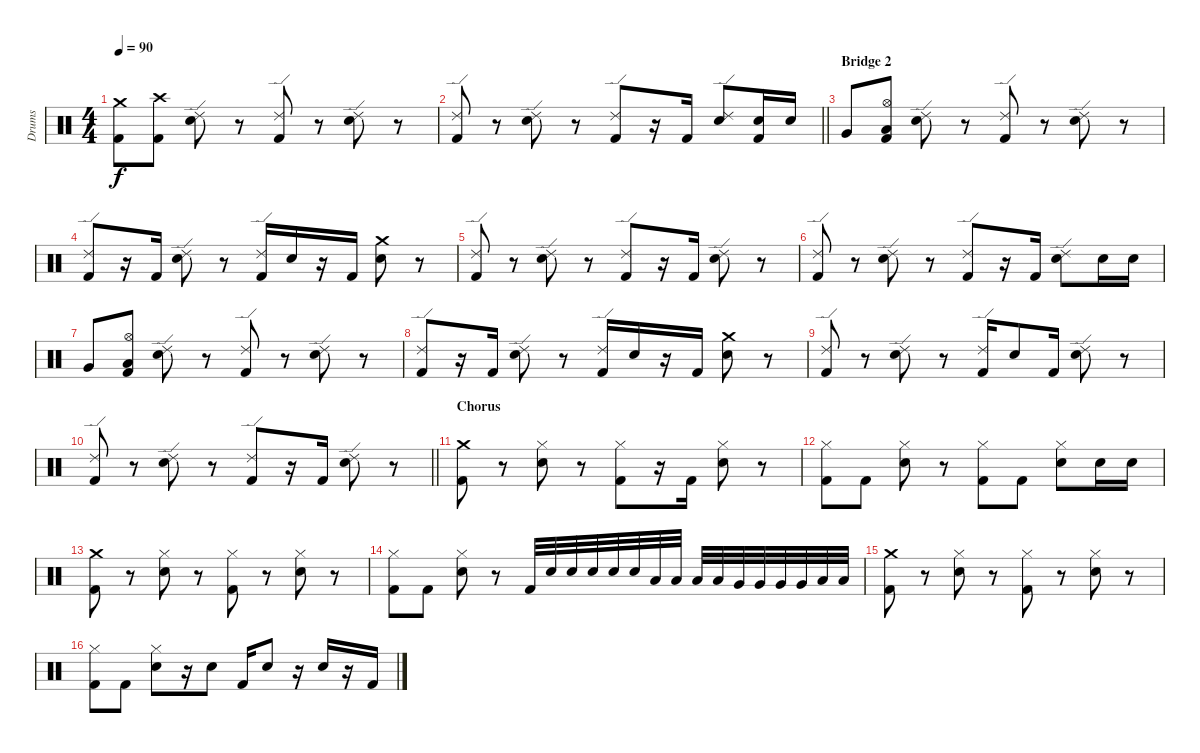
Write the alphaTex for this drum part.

\track ("Drums" "Drums") {instrument percussion}
\staff {score}
\articulation defaults
\ts (4 4)
\tempo 90
\clef neutral
\ks c
("Crash medium (hit)" "Kick (hit) 2").8{dy f} ("Crash high (hit)" "Kick (hit) 2").8 ("Ride (edge) 2" "Snare (hit) 2").8 r.8 ("Ride (edge) 2" "Kick (hit) 2").8 r.8 ("Ride (edge) 2" "Snare (hit) 2").8 r.8 |
\barLineRight lightlight
("Ride (edge) 2" "Kick (hit) 2").8 r.8 ("Ride (edge) 2" "Snare (hit) 2").8 r.8 ("Ride (edge) 2" "Kick (hit) 2").8 r.16 "Kick (hit) 2".16 ("Ride (edge) 2" "Snare (hit) 2").8 ("Snare (hit) 2" "Kick (hit) 2").16 "Snare (hit) 2".16 |
\section ("" "Bridge 2")
"Very Low Tom (hit)".8 ("Hi-Hat (open)" "Low Floor Tom (hit)" "Kick (hit) 2").8 ("Ride (edge) 2" "Snare (hit) 2").8 r.8 ("Ride (edge) 2" "Kick (hit) 2").8 r.8 ("Ride (edge) 2" "Snare (hit) 2").8 r.8 |
("Ride (edge) 2" "Kick (hit) 2").8 r.16 "Kick (hit) 2".16 ("Ride (edge) 2" "Snare (hit) 2").8 r.8 ("Ride (edge) 2" "Kick (hit) 2").16 "Snare (hit) 2".16 r.16 "Kick (hit) 2".16 ("Crash medium (hit)" "Snare (hit) 2").8 r.8 |
("Ride (edge) 2" "Kick (hit) 2").8 r.8 ("Ride (edge) 2" "Snare (hit) 2").8 r.8 ("Ride (edge) 2" "Kick (hit) 2").8 r.16 "Kick (hit) 2".16 ("Ride (edge) 2" "Snare (hit) 2").8 r.8 |
("Ride (edge) 2" "Kick (hit) 2").8 r.8 ("Ride (edge) 2" "Snare (hit) 2").8 r.8 ("Ride (edge) 2" "Kick (hit) 2").8 r.16 "Kick (hit) 2".16 ("Ride (edge) 2" "Snare (hit) 2").8 "Snare (hit) 2".16 "Snare (hit) 2".16 |
"Very Low Tom (hit)".8 ("Hi-Hat (open)" "Low Floor Tom (hit)" "Kick (hit) 2").8 ("Ride (edge) 2" "Snare (hit) 2").8 r.8 ("Ride (edge) 2" "Kick (hit) 2").8 r.8 ("Ride (edge) 2" "Snare (hit) 2").8 r.8 |
("Ride (edge) 2" "Kick (hit) 2").8 r.16 "Kick (hit) 2".16 ("Ride (edge) 2" "Snare (hit) 2").8 r.8 ("Ride (edge) 2" "Kick (hit) 2").16 "Snare (hit) 2".16 r.16 "Kick (hit) 2".16 ("Crash medium (hit)" "Snare (hit) 2").8 r.8 |
("Ride (edge) 2" "Kick (hit) 2").8 r.8 ("Ride (edge) 2" "Snare (hit) 2").8 r.8 ("Ride (edge) 2" "Kick (hit) 2").16 "Snare (hit) 2".8 "Kick (hit) 2".16 ("Ride (edge) 2" "Snare (hit) 2").8 r.8 |
\barLineRight lightlight
("Ride (edge) 2" "Kick (hit) 2").8 r.8 ("Ride (edge) 2" "Snare (hit) 2").8 r.8 ("Ride (edge) 2" "Kick (hit) 2").8 r.16 "Kick (hit) 2".16 ("Ride (edge) 2" "Snare (hit) 2").8 r.8 |
\section ("" "Chorus")
("Crash medium (hit)" "Kick (hit) 2").8 r.8 ("Hi-Hat (closed)" "Snare (hit) 2").8 r.8 ("Hi-Hat (closed)" "Kick (hit) 2").8 r.16 "Kick (hit) 2".16 ("Hi-Hat (closed)" "Snare (hit) 2").8 r.8 |
("Hi-Hat (closed)" "Kick (hit) 2").8 "Kick (hit) 2".8 ("Hi-Hat (closed)" "Snare (hit) 2").8 r.8 ("Hi-Hat (closed)" "Kick (hit) 2").8 "Kick (hit) 2".8 ("Hi-Hat (closed)" "Snare (hit) 2").8 "Snare (hit) 2".16 "Snare (hit) 2".16 |
("Crash medium (hit)" "Kick (hit) 2").8 r.8 ("Hi-Hat (closed)" "Snare (hit) 2").8 r.8 ("Hi-Hat (closed)" "Kick (hit) 2").8 r.8 ("Hi-Hat (closed)" "Snare (hit) 2").8 r.8 |
("Hi-Hat (closed)" "Kick (hit) 2").8 "Kick (hit) 2".8 ("Hi-Hat (closed)" "Snare (hit) 2").8 r.8 "Kick (hit) 2".32 "Snare (hit) 2".32 "Snare (hit) 2".32 "Snare (hit) 2".32 "Snare (hit) 2".32 "Snare (hit) 2".32 "Low Tom (hit)".32 "Low Tom (hit)".32 "Low Tom (hit)".32 "Low Tom (hit)".32 "Very Low Tom (hit)".32 "Very Low Tom (hit)".32 "Very Low Tom (hit)".32 "Very Low Tom (hit)".32 "Low Floor Tom (hit)".32 "Low Floor Tom (hit)".32 |
("Crash medium (hit)" "Kick (hit) 2").8 r.8 ("Hi-Hat (closed)" "Snare (hit) 2").8 r.8 ("Hi-Hat (closed)" "Kick (hit) 2").8 r.8 ("Hi-Hat (closed)" "Snare (hit) 2").8 r.8 |
("Hi-Hat (closed)" "Kick (hit) 2").8 "Kick (hit) 2".8 ("Hi-Hat (closed)" "Snare (hit) 2").8 r.16 "Snare (hit) 2".8 "Kick (hit) 2".16 "Snare (hit) 2".8 r.16 "Snare (hit) 2".16 r.16 "Kick (hit) 2".16
